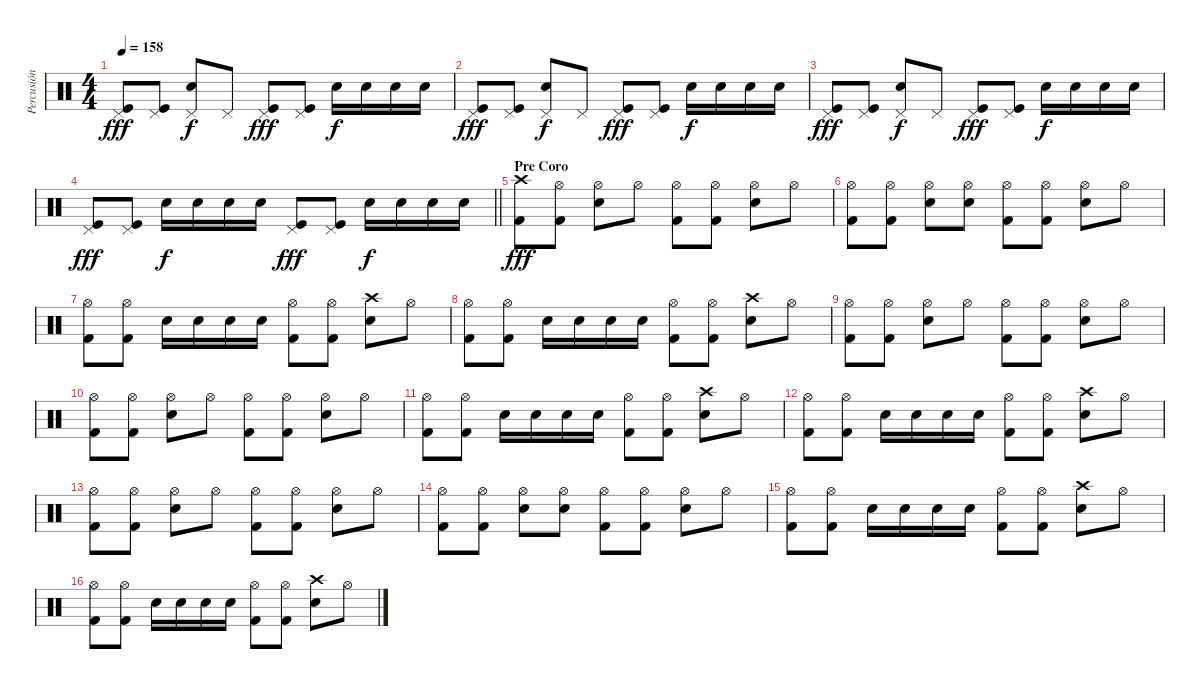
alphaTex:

\track ("Percusión" "Percusión") {instrument percussion}
\staff {score}
\articulation defaults
\ts (4 4)
\tempo 158
\clef neutral
\ks c
("Pedal Hi-Hat (hit)" "Kick (hit)").8{dy fff} ("Pedal Hi-Hat (hit)" "Kick (hit)").8 ("Pedal Hi-Hat (hit)" "Electric Snare (hit)").8{dy f} "Pedal Hi-Hat (hit)".8 ("Pedal Hi-Hat (hit)" "Kick (hit)").8{dy fff} ("Pedal Hi-Hat (hit)" "Kick (hit)").8 "Electric Snare (hit)".16{dy f} "Electric Snare (hit)".16 "Electric Snare (hit)".16 "Electric Snare (hit)".16 |
("Pedal Hi-Hat (hit)" "Kick (hit)").8{dy fff} ("Pedal Hi-Hat (hit)" "Kick (hit)").8 ("Pedal Hi-Hat (hit)" "Electric Snare (hit)").8{dy f} "Pedal Hi-Hat (hit)".8 ("Pedal Hi-Hat (hit)" "Kick (hit)").8{dy fff} ("Pedal Hi-Hat (hit)" "Kick (hit)").8 "Electric Snare (hit)".16{dy f} "Electric Snare (hit)".16 "Electric Snare (hit)".16 "Electric Snare (hit)".16 |
("Pedal Hi-Hat (hit)" "Kick (hit)").8{dy fff} ("Pedal Hi-Hat (hit)" "Kick (hit)").8 ("Pedal Hi-Hat (hit)" "Electric Snare (hit)").8{dy f} "Pedal Hi-Hat (hit)".8 ("Pedal Hi-Hat (hit)" "Kick (hit)").8{dy fff} ("Pedal Hi-Hat (hit)" "Kick (hit)").8 "Electric Snare (hit)".16{dy f} "Electric Snare (hit)".16 "Electric Snare (hit)".16 "Electric Snare (hit)".16 |
\barLineRight lightlight
("Pedal Hi-Hat (hit)" "Kick (hit)").8{dy fff} ("Pedal Hi-Hat (hit)" "Kick (hit)").8 "Electric Snare (hit)".16{dy f} "Electric Snare (hit)".16 "Electric Snare (hit)".16 "Electric Snare (hit)".16 ("Pedal Hi-Hat (hit)" "Kick (hit)").8{dy fff} ("Pedal Hi-Hat (hit)" "Kick (hit)").8 "Electric Snare (hit)".16{dy f} "Electric Snare (hit)".16 "Electric Snare (hit)".16 "Electric Snare (hit)".16 |
\section ("" "Pre Coro")
("Crash high (hit)" "Kick (hit) 2").8{dy fff} ("Hi-Hat (open)" "Kick (hit) 2").8 ("Hi-Hat (open)" "Electric Snare (hit)").8 "Hi-Hat (open)".8 ("Hi-Hat (open)" "Kick (hit) 2").8 ("Hi-Hat (open)" "Kick (hit) 2").8 ("Hi-Hat (open)" "Electric Snare (hit)").8 "Hi-Hat (open)".8 |
("Hi-Hat (open)" "Kick (hit) 2").8 ("Hi-Hat (open)" "Kick (hit) 2").8 ("Hi-Hat (open)" "Electric Snare (hit)").8 ("Hi-Hat (open)" "Snare (hit)").8 ("Hi-Hat (open)" "Kick (hit) 2").8 ("Hi-Hat (open)" "Kick (hit) 2").8 ("Hi-Hat (open)" "Electric Snare (hit)").8 "Hi-Hat (open)".8 |
("Hi-Hat (open)" "Kick (hit) 2").8 ("Hi-Hat (open)" "Kick (hit) 2").8 "Electric Snare (hit)".16 "Electric Snare (hit)".16 "Electric Snare (hit)".16 "Electric Snare (hit)".16 ("Hi-Hat (open)" "Kick (hit) 2").8 ("Hi-Hat (open)" "Kick (hit) 2").8 ("Crash high (hit)" "Electric Snare (hit)").8 "Hi-Hat (open)".8 |
("Hi-Hat (open)" "Kick (hit) 2").8 ("Hi-Hat (open)" "Kick (hit) 2").8 "Electric Snare (hit)".16 "Electric Snare (hit)".16 "Electric Snare (hit)".16 "Electric Snare (hit)".16 ("Hi-Hat (open)" "Kick (hit) 2").8 ("Hi-Hat (open)" "Kick (hit) 2").8 ("Crash high (hit)" "Electric Snare (hit)").8 "Hi-Hat (open)".8 |
("Hi-Hat (open)" "Kick (hit) 2").8 ("Hi-Hat (open)" "Kick (hit) 2").8 ("Hi-Hat (open)" "Electric Snare (hit)").8 "Hi-Hat (open)".8 ("Hi-Hat (open)" "Kick (hit) 2").8 ("Hi-Hat (open)" "Kick (hit) 2").8 ("Hi-Hat (open)" "Electric Snare (hit)").8 "Hi-Hat (open)".8 |
("Hi-Hat (open)" "Kick (hit) 2").8 ("Hi-Hat (open)" "Kick (hit) 2").8 ("Hi-Hat (open)" "Electric Snare (hit)").8 "Hi-Hat (open)".8 ("Hi-Hat (open)" "Kick (hit) 2").8 ("Hi-Hat (open)" "Kick (hit) 2").8 ("Hi-Hat (open)" "Electric Snare (hit)").8 "Hi-Hat (open)".8 |
("Hi-Hat (open)" "Kick (hit) 2").8 ("Hi-Hat (open)" "Kick (hit) 2").8 "Electric Snare (hit)".16 "Electric Snare (hit)".16 "Electric Snare (hit)".16 "Electric Snare (hit)".16 ("Hi-Hat (open)" "Kick (hit) 2").8 ("Hi-Hat (open)" "Kick (hit) 2").8 ("Crash high (hit)" "Electric Snare (hit)").8 "Hi-Hat (open)".8 |
("Hi-Hat (open)" "Kick (hit) 2").8 ("Hi-Hat (open)" "Kick (hit) 2").8 "Electric Snare (hit)".16 "Electric Snare (hit)".16 "Electric Snare (hit)".16 "Electric Snare (hit)".16 ("Hi-Hat (open)" "Kick (hit) 2").8 ("Hi-Hat (open)" "Kick (hit) 2").8 ("Crash high (hit)" "Electric Snare (hit)").8 "Hi-Hat (open)".8 |
("Hi-Hat (open)" "Kick (hit) 2").8 ("Hi-Hat (open)" "Kick (hit) 2").8 ("Hi-Hat (open)" "Electric Snare (hit)").8 "Hi-Hat (open)".8 ("Hi-Hat (open)" "Kick (hit) 2").8 ("Hi-Hat (open)" "Kick (hit) 2").8 ("Hi-Hat (open)" "Electric Snare (hit)").8 "Hi-Hat (open)".8 |
("Hi-Hat (open)" "Kick (hit) 2").8 ("Hi-Hat (open)" "Kick (hit) 2").8 ("Hi-Hat (open)" "Electric Snare (hit)").8 ("Hi-Hat (open)" "Snare (hit)").8 ("Hi-Hat (open)" "Kick (hit) 2").8 ("Hi-Hat (open)" "Kick (hit) 2").8 ("Hi-Hat (open)" "Electric Snare (hit)").8 "Hi-Hat (open)".8 |
("Hi-Hat (open)" "Kick (hit) 2").8 ("Hi-Hat (open)" "Kick (hit) 2").8 "Electric Snare (hit)".16 "Electric Snare (hit)".16 "Electric Snare (hit)".16 "Electric Snare (hit)".16 ("Hi-Hat (open)" "Kick (hit) 2").8 ("Hi-Hat (open)" "Kick (hit) 2").8 ("Crash high (hit)" "Electric Snare (hit)").8 "Hi-Hat (open)".8 |
("Hi-Hat (open)" "Kick (hit) 2").8 ("Hi-Hat (open)" "Kick (hit) 2").8 "Electric Snare (hit)".16 "Electric Snare (hit)".16 "Electric Snare (hit)".16 "Electric Snare (hit)".16 ("Hi-Hat (open)" "Kick (hit) 2").8 ("Hi-Hat (open)" "Kick (hit) 2").8 ("Crash high (hit)" "Electric Snare (hit)").8 "Hi-Hat (open)".8
